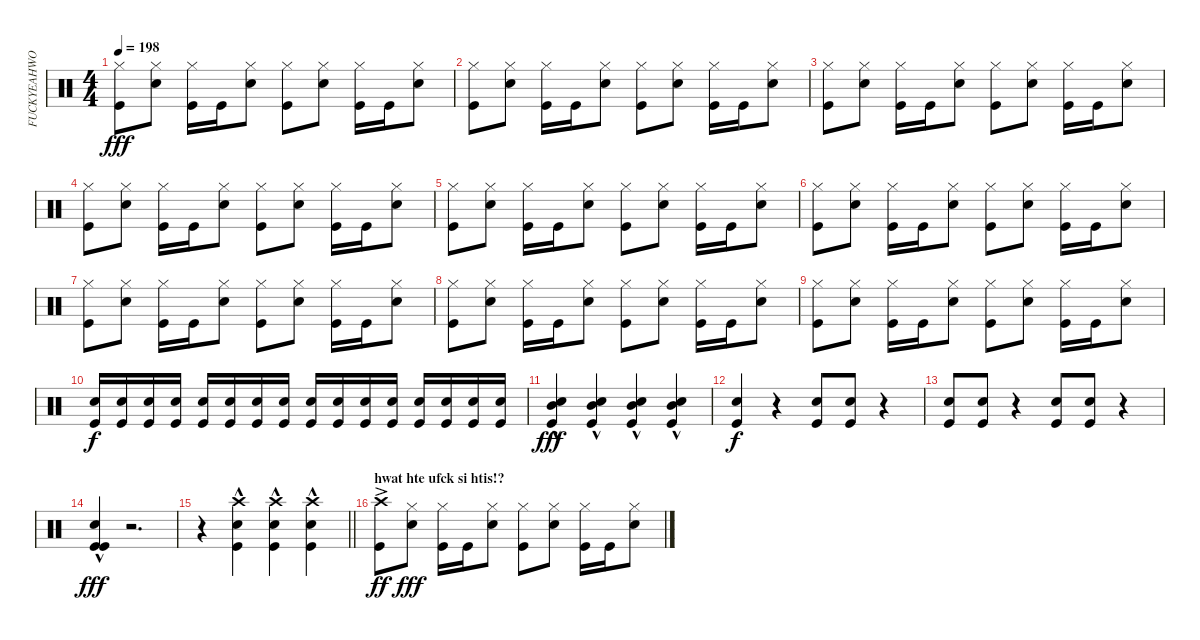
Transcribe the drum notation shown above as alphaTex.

\track ("FUCKYEAHWOOTDAVEMACKINTOSH!(Percussion)" "FUCKYEAHWO") {instrument percussion}
\staff {score}
\articulation defaults
\ts (4 4)
\tempo 198
\clef neutral
\ks c
("Kick (hit)" "Hi-Hat (closed)").8{dy fff} ("Snare (hit) 2" "Hi-Hat (closed)").8 ("Kick (hit)" "Hi-Hat (closed)").16 "Kick (hit)".16 ("Hi-Hat (closed)" "Snare (hit) 2").8 ("Kick (hit)" "Hi-Hat (closed)").8 ("Snare (hit) 2" "Hi-Hat (closed)").8 ("Kick (hit)" "Hi-Hat (closed)").16 "Kick (hit)".16 ("Snare (hit) 2" "Hi-Hat (closed)").8 |
("Kick (hit)" "Hi-Hat (closed)").8 ("Snare (hit) 2" "Hi-Hat (closed)").8 ("Kick (hit)" "Hi-Hat (closed)").16 "Kick (hit)".16 ("Hi-Hat (closed)" "Snare (hit) 2").8 ("Kick (hit)" "Hi-Hat (closed)").8 ("Snare (hit) 2" "Hi-Hat (closed)").8 ("Kick (hit)" "Hi-Hat (closed)").16 "Kick (hit)".16 ("Snare (hit) 2" "Hi-Hat (closed)").8 |
("Kick (hit)" "Hi-Hat (closed)").8 ("Snare (hit) 2" "Hi-Hat (closed)").8 ("Kick (hit)" "Hi-Hat (closed)").16 "Kick (hit)".16 ("Hi-Hat (closed)" "Snare (hit) 2").8 ("Kick (hit)" "Hi-Hat (closed)").8 ("Snare (hit) 2" "Hi-Hat (closed)").8 ("Kick (hit)" "Hi-Hat (closed)").16 "Kick (hit)".16 ("Snare (hit) 2" "Hi-Hat (closed)").8 |
("Kick (hit)" "Hi-Hat (closed)").8 ("Snare (hit) 2" "Hi-Hat (closed)").8 ("Kick (hit)" "Hi-Hat (closed)").16 "Kick (hit)".16 ("Hi-Hat (closed)" "Snare (hit) 2").8 ("Kick (hit)" "Hi-Hat (closed)").8 ("Snare (hit) 2" "Hi-Hat (closed)").8 ("Kick (hit)" "Hi-Hat (closed)").16 "Kick (hit)".16 ("Snare (hit) 2" "Hi-Hat (closed)").8 |
("Kick (hit)" "Hi-Hat (closed)").8 ("Snare (hit) 2" "Hi-Hat (closed)").8 ("Kick (hit)" "Hi-Hat (closed)").16 "Kick (hit)".16 ("Hi-Hat (closed)" "Snare (hit) 2").8 ("Kick (hit)" "Hi-Hat (closed)").8 ("Snare (hit) 2" "Hi-Hat (closed)").8 ("Kick (hit)" "Hi-Hat (closed)").16 "Kick (hit)".16 ("Snare (hit) 2" "Hi-Hat (closed)").8 |
("Kick (hit)" "Hi-Hat (closed)").8 ("Snare (hit) 2" "Hi-Hat (closed)").8 ("Kick (hit)" "Hi-Hat (closed)").16 "Kick (hit)".16 ("Hi-Hat (closed)" "Snare (hit) 2").8 ("Kick (hit)" "Hi-Hat (closed)").8 ("Snare (hit) 2" "Hi-Hat (closed)").8 ("Kick (hit)" "Hi-Hat (closed)").16 "Kick (hit)".16 ("Snare (hit) 2" "Hi-Hat (closed)").8 |
("Kick (hit)" "Hi-Hat (closed)").8 ("Snare (hit) 2" "Hi-Hat (closed)").8 ("Kick (hit)" "Hi-Hat (closed)").16 "Kick (hit)".16 ("Hi-Hat (closed)" "Snare (hit) 2").8 ("Kick (hit)" "Hi-Hat (closed)").8 ("Snare (hit) 2" "Hi-Hat (closed)").8 ("Kick (hit)" "Hi-Hat (closed)").16 "Kick (hit)".16 ("Snare (hit) 2" "Hi-Hat (closed)").8 |
("Kick (hit)" "Hi-Hat (closed)").8 ("Snare (hit) 2" "Hi-Hat (closed)").8 ("Kick (hit)" "Hi-Hat (closed)").16 "Kick (hit)".16 ("Hi-Hat (closed)" "Snare (hit) 2").8 ("Kick (hit)" "Hi-Hat (closed)").8 ("Snare (hit) 2" "Hi-Hat (closed)").8 ("Kick (hit)" "Hi-Hat (closed)").16 "Kick (hit)".16 ("Snare (hit) 2" "Hi-Hat (closed)").8 |
("Kick (hit)" "Hi-Hat (closed)").8 ("Snare (hit) 2" "Hi-Hat (closed)").8 ("Kick (hit)" "Hi-Hat (closed)").16 "Kick (hit)".16 ("Hi-Hat (closed)" "Snare (hit) 2").8 ("Kick (hit)" "Hi-Hat (closed)").8 ("Snare (hit) 2" "Hi-Hat (closed)").8 ("Kick (hit)" "Hi-Hat (closed)").16 "Kick (hit)".16 ("Snare (hit) 2" "Hi-Hat (closed)").8 |
("Snare (hit) 2" "Kick (hit)").16{dy f} ("Snare (hit) 2" "Kick (hit)").16 ("Snare (hit) 2" "Kick (hit)").16 ("Snare (hit) 2" "Kick (hit)").16 ("Kick (hit)" "Snare (hit) 2").16 ("Snare (hit) 2" "Kick (hit)").16 ("Snare (hit) 2" "Kick (hit)").16 ("Snare (hit) 2" "Kick (hit)").16 ("Snare (hit) 2" "Kick (hit)").16 ("Snare (hit) 2" "Kick (hit)").16 ("Snare (hit) 2" "Kick (hit)").16 ("Snare (hit) 2" "Kick (hit)").16 ("Snare (hit) 2" "Kick (hit)").16 ("Snare (hit) 2" "Kick (hit)").16 ("Snare (hit) 2" "Kick (hit)").16 ("Snare (hit) 2" "Kick (hit)").16 |
("Kick (hit)" "Snare (hit) 2"{hac} "Mid Tom (hit)").4{dy fff} ("Kick (hit)" "Snare (hit) 2"{hac} "Mid Tom (hit)").4 ("Kick (hit)" "Snare (hit) 2"{hac} "Mid Tom (hit)").4 ("Kick (hit)" "Snare (hit) 2"{hac} "Mid Tom (hit)").4 |
("Snare (hit) 2" "Kick (hit)").4{dy f} r.4 ("Kick (hit)" "Snare (hit) 2").8 ("Kick (hit)" "Snare (hit) 2").8 r.4 |
("Kick (hit)" "Snare (hit) 2").8 ("Snare (hit) 2" "Kick (hit)").8 r.4 ("Snare (hit) 2" "Kick (hit)").8 ("Snare (hit) 2" "Kick (hit)").8 r.4 |
("Snare (hit) 2"{hac} "Kick (hit)"{hac} "Kick (hit)").4{dy fff} r.2{d} |
\barLineRight lightlight
r.4 ("Snare (hit) 2" "Kick (hit)" "Crash high (hit)"{hac}).4 ("Snare (hit) 2" "Crash high (hit)"{hac} "Kick (hit)").4 ("Snare (hit) 2" "Kick (hit)" "Crash high (hit)"{hac}).4 |
\section ("" "hwat hte ufck si htis!?")
("Kick (hit)" "Crash high (hit)"{ac}).8{dy ff} ("Snare (hit) 2" "Hi-Hat (closed)").8{dy fff} ("Kick (hit)" "Hi-Hat (closed)").16 "Kick (hit)".16 ("Hi-Hat (closed)" "Snare (hit) 2").8 ("Kick (hit)" "Hi-Hat (closed)").8 ("Snare (hit) 2" "Hi-Hat (closed)").8 ("Kick (hit)" "Hi-Hat (closed)").16 "Kick (hit)".16 ("Snare (hit) 2" "Hi-Hat (closed)").8
